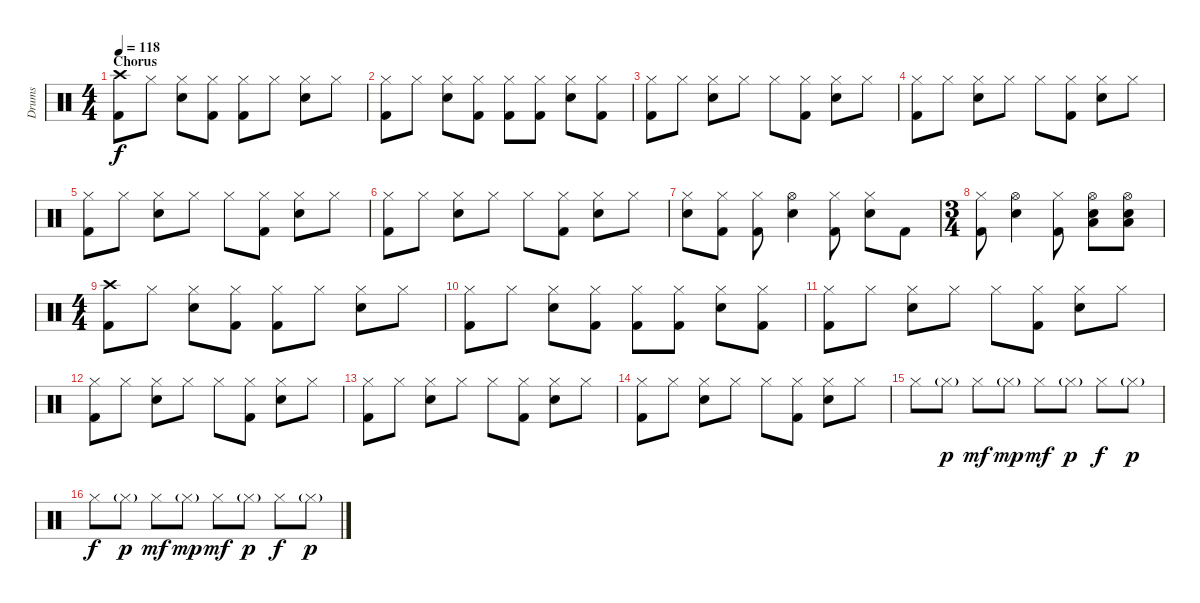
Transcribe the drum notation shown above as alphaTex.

\track ("Drums" "Drums") {instrument percussion}
\staff {score}
\articulation defaults
\ts (4 4)
\section ("" "Chorus")
\tempo 118
\clef neutral
\ks c
("Crash high (hit)" "Kick (hit) 2").8{dy f} "Hi-Hat (closed)".8 ("Hi-Hat (closed)" "Electric Snare (hit)").8 ("Hi-Hat (closed)" "Kick (hit) 2").8 ("Hi-Hat (closed)" "Kick (hit) 2").8 "Hi-Hat (closed)".8 ("Hi-Hat (closed)" "Electric Snare (hit)").8 "Hi-Hat (closed)".8 |
("Hi-Hat (closed)" "Kick (hit) 2").8 "Hi-Hat (closed)".8 ("Hi-Hat (closed)" "Electric Snare (hit)").8 ("Hi-Hat (closed)" "Kick (hit) 2").8 ("Hi-Hat (closed)" "Kick (hit) 2").8 ("Hi-Hat (closed)" "Kick (hit) 2").8 ("Hi-Hat (closed)" "Electric Snare (hit)").8 ("Hi-Hat (closed)" "Kick (hit) 2").8 |
("Hi-Hat (closed)" "Kick (hit) 2").8 "Hi-Hat (closed)".8 ("Hi-Hat (closed)" "Electric Snare (hit)").8 "Hi-Hat (closed)".8 "Hi-Hat (closed)".8 ("Hi-Hat (closed)" "Kick (hit) 2").8 ("Hi-Hat (closed)" "Electric Snare (hit)").8 "Hi-Hat (closed)".8 |
("Hi-Hat (closed)" "Kick (hit) 2").8 "Hi-Hat (closed)".8 ("Hi-Hat (closed)" "Electric Snare (hit)").8 "Hi-Hat (closed)".8 "Hi-Hat (closed)".8 ("Hi-Hat (closed)" "Kick (hit) 2").8 ("Hi-Hat (closed)" "Electric Snare (hit)").8 "Hi-Hat (closed)".8 |
("Hi-Hat (closed)" "Kick (hit) 2").8 "Hi-Hat (closed)".8 ("Hi-Hat (closed)" "Electric Snare (hit)").8 "Hi-Hat (closed)".8 "Hi-Hat (closed)".8 ("Hi-Hat (closed)" "Kick (hit) 2").8 ("Hi-Hat (closed)" "Electric Snare (hit)").8 "Hi-Hat (closed)".8 |
("Hi-Hat (closed)" "Kick (hit) 2").8 "Hi-Hat (closed)".8 ("Hi-Hat (closed)" "Electric Snare (hit)").8 "Hi-Hat (closed)".8 "Hi-Hat (closed)".8 ("Hi-Hat (closed)" "Kick (hit) 2").8 ("Hi-Hat (closed)" "Electric Snare (hit)").8 "Hi-Hat (closed)".8 |
("Hi-Hat (closed)" "Electric Snare (hit)").8 ("Hi-Hat (closed)" "Kick (hit) 2").8 ("Hi-Hat (closed)" "Kick (hit) 2").8 ("Hi-Hat (open)" "Electric Snare (hit)").4 ("Hi-Hat (closed)" "Kick (hit) 2").8 ("Hi-Hat (closed)" "Electric Snare (hit)").8 "Kick (hit) 2".8 |
\ts (3 4)
("Hi-Hat (closed)" "Kick (hit) 2").8 ("Hi-Hat (open)" "Electric Snare (hit)").4 ("Hi-Hat (closed)" "Kick (hit) 2").8 ("Hi-Hat (open)" "Electric Snare (hit)" "Low Floor Tom (hit)").8 ("Hi-Hat (open)" "Electric Snare (hit)" "Low Floor Tom (hit)").8 |
\ts (4 4)
("Crash high (hit)" "Kick (hit) 2").8 "Hi-Hat (closed)".8 ("Hi-Hat (closed)" "Electric Snare (hit)").8 ("Hi-Hat (closed)" "Kick (hit) 2").8 ("Hi-Hat (closed)" "Kick (hit) 2").8 "Hi-Hat (closed)".8 ("Hi-Hat (closed)" "Electric Snare (hit)").8 "Hi-Hat (closed)".8 |
("Hi-Hat (closed)" "Kick (hit) 2").8 "Hi-Hat (closed)".8 ("Hi-Hat (closed)" "Electric Snare (hit)").8 ("Hi-Hat (closed)" "Kick (hit) 2").8 ("Hi-Hat (closed)" "Kick (hit) 2").8 ("Hi-Hat (closed)" "Kick (hit) 2").8 ("Hi-Hat (closed)" "Electric Snare (hit)").8 ("Hi-Hat (closed)" "Kick (hit) 2").8 |
("Hi-Hat (closed)" "Kick (hit) 2").8 "Hi-Hat (closed)".8 ("Hi-Hat (closed)" "Electric Snare (hit)").8 "Hi-Hat (closed)".8 "Hi-Hat (closed)".8 ("Hi-Hat (closed)" "Kick (hit) 2").8 ("Hi-Hat (closed)" "Electric Snare (hit)").8 "Hi-Hat (closed)".8 |
("Hi-Hat (closed)" "Kick (hit) 2").8 "Hi-Hat (closed)".8 ("Hi-Hat (closed)" "Electric Snare (hit)").8 "Hi-Hat (closed)".8 "Hi-Hat (closed)".8 ("Hi-Hat (closed)" "Kick (hit) 2").8 ("Hi-Hat (closed)" "Electric Snare (hit)").8 "Hi-Hat (closed)".8 |
("Hi-Hat (closed)" "Kick (hit) 2").8 "Hi-Hat (closed)".8 ("Hi-Hat (closed)" "Electric Snare (hit)").8 "Hi-Hat (closed)".8 "Hi-Hat (closed)".8 ("Hi-Hat (closed)" "Kick (hit) 2").8 ("Hi-Hat (closed)" "Electric Snare (hit)").8 "Hi-Hat (closed)".8 |
("Hi-Hat (closed)" "Kick (hit) 2").8 "Hi-Hat (closed)".8 ("Hi-Hat (closed)" "Electric Snare (hit)").8 "Hi-Hat (closed)".8 "Hi-Hat (closed)".8 ("Hi-Hat (closed)" "Kick (hit) 2").8 ("Hi-Hat (closed)" "Electric Snare (hit)").8 "Hi-Hat (closed)".8 |
"Hi-Hat (closed)".8 "Hi-Hat (closed)"{g}.8{dy p} "Hi-Hat (closed)".8{dy mf} "Hi-Hat (closed)"{g}.8{dy mp} "Hi-Hat (closed)".8{dy mf} "Hi-Hat (closed)"{g}.8{dy p} "Hi-Hat (closed)".8{dy f} "Hi-Hat (closed)"{g}.8{dy p} |
"Hi-Hat (closed)".8{dy f} "Hi-Hat (closed)"{g}.8{dy p} "Hi-Hat (closed)".8{dy mf} "Hi-Hat (closed)"{g}.8{dy mp} "Hi-Hat (closed)".8{dy mf} "Hi-Hat (closed)"{g}.8{dy p} "Hi-Hat (closed)".8{dy f} "Hi-Hat (closed)"{g}.8{dy p}
